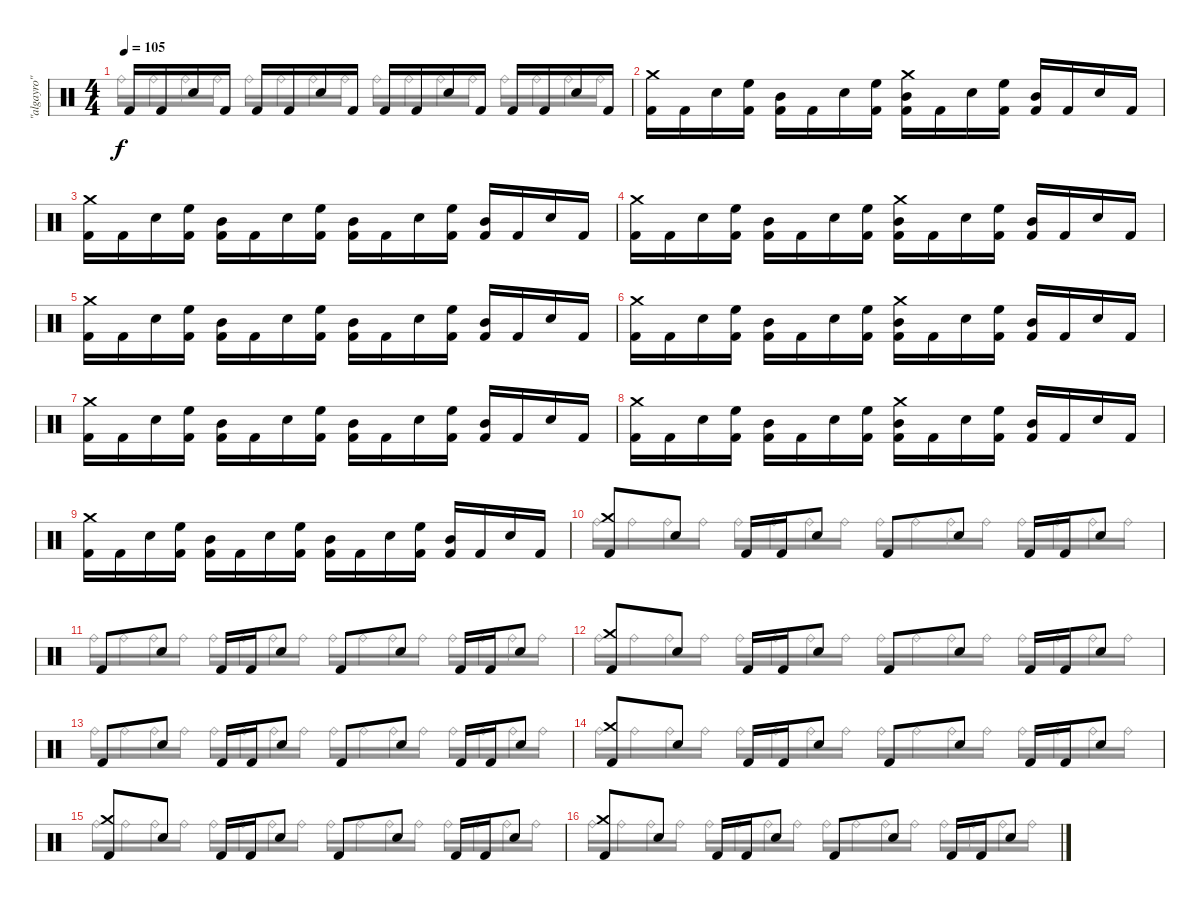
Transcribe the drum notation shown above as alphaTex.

\track ("\"algayro\"" "\"algayro\"") {instrument percussion}
\staff {score}
\articulation defaults
\voice
\ts (4 4)
\tempo 105
\clef neutral
\ks c "Kick (hit) 2".16{dy f} "Kick (hit) 2".16 "Electric Snare (hit)".16 "Kick (hit) 2".16 "Kick (hit) 2".16 "Kick (hit) 2".16 "Electric Snare (hit)".16 "Kick (hit) 2".16 "Kick (hit) 2".16 "Kick (hit) 2".16 "Electric Snare (hit)".16 "Kick (hit) 2".16 "Kick (hit) 2".16 "Kick (hit) 2".16 "Electric Snare (hit)".16 "Kick (hit) 2".16
|
("Crash medium (hit)" "Kick (hit) 2").16 "Kick (hit) 2".16 "Electric Snare (hit)".16 ("High Floor Tom (hit)" "Kick (hit) 2").16 ("Mid Tom (hit)" "Kick (hit) 2").16 "Kick (hit) 2".16 "Electric Snare (hit)".16 ("High Floor Tom (hit)" "Kick (hit) 2").16 ("Crash medium (hit)" "Mid Tom (hit)" "Kick (hit) 2").16 "Kick (hit) 2".16 "Electric Snare (hit)".16 ("High Floor Tom (hit)" "Kick (hit) 2").16 ("Mid Tom (hit)" "Kick (hit) 2").16 "Kick (hit) 2".16 "Electric Snare (hit)".16 "Kick (hit) 2".16 |
("Crash medium (hit)" "Kick (hit) 2").16 "Kick (hit) 2".16 "Electric Snare (hit)".16 ("High Floor Tom (hit)" "Kick (hit) 2").16 ("Mid Tom (hit)" "Kick (hit) 2").16 "Kick (hit) 2".16 "Electric Snare (hit)".16 ("High Floor Tom (hit)" "Kick (hit) 2").16 ("Mid Tom (hit)" "Kick (hit) 2").16 "Kick (hit) 2".16 "Electric Snare (hit)".16 ("High Floor Tom (hit)" "Kick (hit) 2").16 ("Mid Tom (hit)" "Kick (hit) 2").16 "Kick (hit) 2".16 "Electric Snare (hit)".16 "Kick (hit) 2".16 |
("Crash medium (hit)" "Kick (hit) 2").16 "Kick (hit) 2".16 "Electric Snare (hit)".16 ("High Floor Tom (hit)" "Kick (hit) 2").16 ("Mid Tom (hit)" "Kick (hit) 2").16 "Kick (hit) 2".16 "Electric Snare (hit)".16 ("High Floor Tom (hit)" "Kick (hit) 2").16 ("Crash medium (hit)" "Mid Tom (hit)" "Kick (hit) 2").16 "Kick (hit) 2".16 "Electric Snare (hit)".16 ("High Floor Tom (hit)" "Kick (hit) 2").16 ("Mid Tom (hit)" "Kick (hit) 2").16 "Kick (hit) 2".16 "Electric Snare (hit)".16 "Kick (hit) 2".16 |
("Crash medium (hit)" "Kick (hit) 2").16 "Kick (hit) 2".16 "Electric Snare (hit)".16 ("High Floor Tom (hit)" "Kick (hit) 2").16 ("Mid Tom (hit)" "Kick (hit) 2").16 "Kick (hit) 2".16 "Electric Snare (hit)".16 ("High Floor Tom (hit)" "Kick (hit) 2").16 ("Mid Tom (hit)" "Kick (hit) 2").16 "Kick (hit) 2".16 "Electric Snare (hit)".16 ("High Floor Tom (hit)" "Kick (hit) 2").16 ("Mid Tom (hit)" "Kick (hit) 2").16 "Kick (hit) 2".16 "Electric Snare (hit)".16 "Kick (hit) 2".16 |
("Crash medium (hit)" "Kick (hit) 2").16 "Kick (hit) 2".16 "Electric Snare (hit)".16 ("High Floor Tom (hit)" "Kick (hit) 2").16 ("Mid Tom (hit)" "Kick (hit) 2").16 "Kick (hit) 2".16 "Electric Snare (hit)".16 ("High Floor Tom (hit)" "Kick (hit) 2").16 ("Crash medium (hit)" "Mid Tom (hit)" "Kick (hit) 2").16 "Kick (hit) 2".16 "Electric Snare (hit)".16 ("High Floor Tom (hit)" "Kick (hit) 2").16 ("Mid Tom (hit)" "Kick (hit) 2").16 "Kick (hit) 2".16 "Electric Snare (hit)".16 "Kick (hit) 2".16 |
("Crash medium (hit)" "Kick (hit) 2").16 "Kick (hit) 2".16 "Electric Snare (hit)".16 ("High Floor Tom (hit)" "Kick (hit) 2").16 ("Mid Tom (hit)" "Kick (hit) 2").16 "Kick (hit) 2".16 "Electric Snare (hit)".16 ("High Floor Tom (hit)" "Kick (hit) 2").16 ("Mid Tom (hit)" "Kick (hit) 2").16 "Kick (hit) 2".16 "Electric Snare (hit)".16 ("High Floor Tom (hit)" "Kick (hit) 2").16 ("Mid Tom (hit)" "Kick (hit) 2").16 "Kick (hit) 2".16 "Electric Snare (hit)".16 "Kick (hit) 2".16 |
("Crash medium (hit)" "Kick (hit) 2").16 "Kick (hit) 2".16 "Electric Snare (hit)".16 ("High Floor Tom (hit)" "Kick (hit) 2").16 ("Mid Tom (hit)" "Kick (hit) 2").16 "Kick (hit) 2".16 "Electric Snare (hit)".16 ("High Floor Tom (hit)" "Kick (hit) 2").16 ("Crash medium (hit)" "Mid Tom (hit)" "Kick (hit) 2").16 "Kick (hit) 2".16 "Electric Snare (hit)".16 ("High Floor Tom (hit)" "Kick (hit) 2").16 ("Mid Tom (hit)" "Kick (hit) 2").16 "Kick (hit) 2".16 "Electric Snare (hit)".16 "Kick (hit) 2".16 |
("Crash medium (hit)" "Kick (hit) 2").16 "Kick (hit) 2".16 "Electric Snare (hit)".16 ("High Floor Tom (hit)" "Kick (hit) 2").16 ("Mid Tom (hit)" "Kick (hit) 2").16 "Kick (hit) 2".16 "Electric Snare (hit)".16 ("High Floor Tom (hit)" "Kick (hit) 2").16 ("Mid Tom (hit)" "Kick (hit) 2").16 "Kick (hit) 2".16 "Electric Snare (hit)".16 ("High Floor Tom (hit)" "Kick (hit) 2").16 ("Mid Tom (hit)" "Kick (hit) 2").16 "Kick (hit) 2".16 "Electric Snare (hit)".16 "Kick (hit) 2".16 |
("Crash medium (hit)" "Kick (hit) 2").8 "Electric Snare (hit)".8 "Kick (hit) 2".16 "Kick (hit) 2".16 "Electric Snare (hit)".8 "Kick (hit) 2".8 "Electric Snare (hit)".8 "Kick (hit) 2".16 "Kick (hit) 2".16 "Electric Snare (hit)".8 |
"Kick (hit) 2".8 "Electric Snare (hit)".8 "Kick (hit) 2".16 "Kick (hit) 2".16 "Electric Snare (hit)".8 "Kick (hit) 2".8 "Electric Snare (hit)".8 "Kick (hit) 2".16 "Kick (hit) 2".16 "Electric Snare (hit)".8 |
("Crash medium (hit)" "Kick (hit) 2").8 "Electric Snare (hit)".8 "Kick (hit) 2".16 "Kick (hit) 2".16 "Electric Snare (hit)".8 "Kick (hit) 2".8 "Electric Snare (hit)".8 "Kick (hit) 2".16 "Kick (hit) 2".16 "Electric Snare (hit)".8 |
"Kick (hit) 2".8 "Electric Snare (hit)".8 "Kick (hit) 2".16 "Kick (hit) 2".16 "Electric Snare (hit)".8 "Kick (hit) 2".8 "Electric Snare (hit)".8 "Kick (hit) 2".16 "Kick (hit) 2".16 "Electric Snare (hit)".8 |
("Crash medium (hit)" "Kick (hit) 2").8 "Electric Snare (hit)".8 "Kick (hit) 2".16 "Kick (hit) 2".16 "Electric Snare (hit)".8 "Kick (hit) 2".8 "Electric Snare (hit)".8 "Kick (hit) 2".16 "Kick (hit) 2".16 "Electric Snare (hit)".8 |
("Crash medium (hit)" "Kick (hit) 2").8 "Electric Snare (hit)".8 "Kick (hit) 2".16 "Kick (hit) 2".16 "Electric Snare (hit)".8 "Kick (hit) 2".8 "Electric Snare (hit)".8 "Kick (hit) 2".16 "Kick (hit) 2".16 "Electric Snare (hit)".8 |
("Crash medium (hit)" "Kick (hit) 2").8 "Electric Snare (hit)".8 "Kick (hit) 2".16 "Kick (hit) 2".16 "Electric Snare (hit)".8 "Kick (hit) 2".8 "Electric Snare (hit)".8 "Kick (hit) 2".16 "Kick (hit) 2".16 "Electric Snare (hit)".8
\voice
\clef neutral
\ottava regular
\simile none
\ks c "Ride (bell)".16{dy f} "Ride (bell)".16 "Ride (bell)".16 "Ride (bell)".16 "Ride (bell)".16 "Ride (bell)".16 "Ride (bell)".16 "Ride (bell)".16 "Ride (bell)".16 "Ride (bell)".16 "Ride (bell)".16 "Ride (bell)".16 "Ride (bell)".16 "Ride (bell)".16 "Ride (bell)".16 "Ride (bell)".16
|
|
|
|
|
|
|
|
|
"Ride (bell)".16 "Ride (bell)".16 "Ride (bell)".16 "Ride (bell)".16 "Ride (bell)".16 "Ride (bell)".16 "Ride (bell)".16 "Ride (bell)".16 "Ride (bell)".16 "Ride (bell)".16 "Ride (bell)".16 "Ride (bell)".16 "Ride (bell)".16 "Ride (bell)".16 "Ride (bell)".16 "Ride (bell)".16 |
"Ride (bell)".16 "Ride (bell)".16 "Ride (bell)".16 "Ride (bell)".16 "Ride (bell)".16 "Ride (bell)".16 "Ride (bell)".16 "Ride (bell)".16 "Ride (bell)".16 "Ride (bell)".16 "Ride (bell)".16 "Ride (bell)".16 "Ride (bell)".16 "Ride (bell)".16 "Ride (bell)".16 "Ride (bell)".16 |
"Ride (bell)".16 "Ride (bell)".16 "Ride (bell)".16 "Ride (bell)".16 "Ride (bell)".16 "Ride (bell)".16 "Ride (bell)".16 "Ride (bell)".16 "Ride (bell)".16 "Ride (bell)".16 "Ride (bell)".16 "Ride (bell)".16 "Ride (bell)".16 "Ride (bell)".16 "Ride (bell)".16 "Ride (bell)".16 |
"Ride (bell)".16 "Ride (bell)".16 "Ride (bell)".16 "Ride (bell)".16 "Ride (bell)".16 "Ride (bell)".16 "Ride (bell)".16 "Ride (bell)".16 "Ride (bell)".16 "Ride (bell)".16 "Ride (bell)".16 "Ride (bell)".16 "Ride (bell)".16 "Ride (bell)".16 "Ride (bell)".16 "Ride (bell)".16 |
"Ride (bell)".16 "Ride (bell)".16 "Ride (bell)".16 "Ride (bell)".16 "Ride (bell)".16 "Ride (bell)".16 "Ride (bell)".16 "Ride (bell)".16 "Ride (bell)".16 "Ride (bell)".16 "Ride (bell)".16 "Ride (bell)".16 "Ride (bell)".16 "Ride (bell)".16 "Ride (bell)".16 "Ride (bell)".16 |
"Ride (bell)".16 "Ride (bell)".16 "Ride (bell)".16 "Ride (bell)".16 "Ride (bell)".16 "Ride (bell)".16 "Ride (bell)".16 "Ride (bell)".16 "Ride (bell)".16 "Ride (bell)".16 "Ride (bell)".16 "Ride (bell)".16 "Ride (bell)".16 "Ride (bell)".16 "Ride (bell)".16 "Ride (bell)".16 |
"Ride (bell)".16 "Ride (bell)".16 "Ride (bell)".16 "Ride (bell)".16 "Ride (bell)".16 "Ride (bell)".16 "Ride (bell)".16 "Ride (bell)".16 "Ride (bell)".16 "Ride (bell)".16 "Ride (bell)".16 "Ride (bell)".16 "Ride (bell)".16 "Ride (bell)".16 "Ride (bell)".16 "Ride (bell)".16
